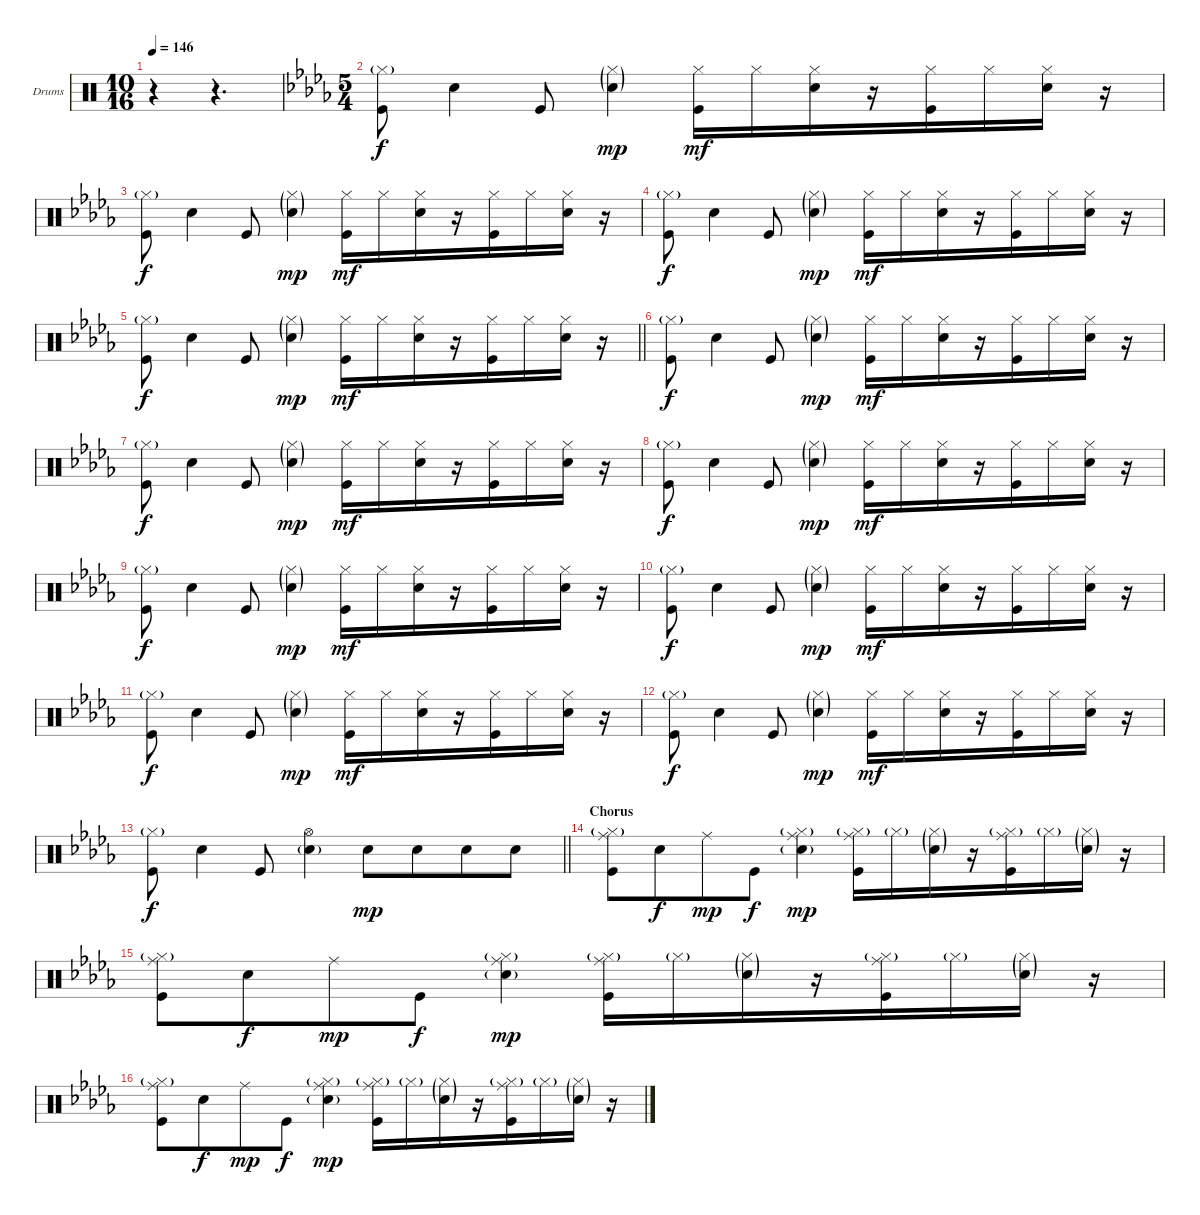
\bracketExtendMode groupsimilarinstruments
\firstSystemTrackNameOrientation horizontal
\otherSystemsTrackNameOrientation horizontal
\track ("Drumkit" "Drums") {instrument percussion}
\staff {score}
\articulation defaults
\ts (10 16)
\beaming (8 5)
\tempo 146
\clef neutral
\ks c
r.4{dy f} r.4{d} |
\ts (5 4)
\beaming (8 6 4)
\ks db
("Hi-Hat (closed)"{g} "Kick (hit)").8 "Snare (hit) 2".4 "Kick (hit)".8 ("Hi-Hat (closed)"{g} "Snare (hit) 2"{g}).4{dy mp} ("Hi-Hat (closed)" "Kick (hit)").16{dy mf} "Hi-Hat (closed)".16 ("Hi-Hat (closed)" "Snare (hit) 2").16 r.16 ("Hi-Hat (closed)" "Kick (hit)").16 "Hi-Hat (closed)".16 ("Hi-Hat (closed)" "Snare (hit) 2").16 r.16 |
("Hi-Hat (closed)"{g} "Kick (hit)").8{dy f} "Snare (hit) 2".4 "Kick (hit)".8 ("Hi-Hat (closed)"{g} "Snare (hit) 2"{g}).4{dy mp} ("Hi-Hat (closed)" "Kick (hit)").16{dy mf} "Hi-Hat (closed)".16 ("Hi-Hat (closed)" "Snare (hit) 2").16 r.16 ("Hi-Hat (closed)" "Kick (hit)").16 "Hi-Hat (closed)".16 ("Hi-Hat (closed)" "Snare (hit) 2").16 r.16 |
("Hi-Hat (closed)"{g} "Kick (hit)").8{dy f} "Snare (hit) 2".4 "Kick (hit)".8 ("Hi-Hat (closed)"{g} "Snare (hit) 2"{g}).4{dy mp} ("Hi-Hat (closed)" "Kick (hit)").16{dy mf} "Hi-Hat (closed)".16 ("Hi-Hat (closed)" "Snare (hit) 2").16 r.16 ("Hi-Hat (closed)" "Kick (hit)").16 "Hi-Hat (closed)".16 ("Hi-Hat (closed)" "Snare (hit) 2").16 r.16 |
\barLineRight lightlight
("Hi-Hat (closed)"{g} "Kick (hit)").8{dy f} "Snare (hit) 2".4 "Kick (hit)".8 ("Hi-Hat (closed)"{g} "Snare (hit) 2"{g}).4{dy mp} ("Hi-Hat (closed)" "Kick (hit)").16{dy mf} "Hi-Hat (closed)".16 ("Hi-Hat (closed)" "Snare (hit) 2").16 r.16 ("Hi-Hat (closed)" "Kick (hit)").16 "Hi-Hat (closed)".16 ("Hi-Hat (closed)" "Snare (hit) 2").16 r.16 |
("Hi-Hat (closed)"{g} "Kick (hit)").8{dy f} "Snare (hit) 2".4 "Kick (hit)".8 ("Hi-Hat (closed)"{g} "Snare (hit) 2"{g}).4{dy mp} ("Hi-Hat (closed)" "Kick (hit)").16{dy mf} "Hi-Hat (closed)".16 ("Hi-Hat (closed)" "Snare (hit) 2").16 r.16 ("Hi-Hat (closed)" "Kick (hit)").16 "Hi-Hat (closed)".16 ("Hi-Hat (closed)" "Snare (hit) 2").16 r.16 |
("Hi-Hat (closed)"{g} "Kick (hit)").8{dy f} "Snare (hit) 2".4 "Kick (hit)".8 ("Hi-Hat (closed)"{g} "Snare (hit) 2"{g}).4{dy mp} ("Hi-Hat (closed)" "Kick (hit)").16{dy mf} "Hi-Hat (closed)".16 ("Hi-Hat (closed)" "Snare (hit) 2").16 r.16 ("Hi-Hat (closed)" "Kick (hit)").16 "Hi-Hat (closed)".16 ("Hi-Hat (closed)" "Snare (hit) 2").16 r.16 |
("Hi-Hat (closed)"{g} "Kick (hit)").8{dy f} "Snare (hit) 2".4 "Kick (hit)".8 ("Hi-Hat (closed)"{g} "Snare (hit) 2"{g}).4{dy mp} ("Hi-Hat (closed)" "Kick (hit)").16{dy mf} "Hi-Hat (closed)".16 ("Hi-Hat (closed)" "Snare (hit) 2").16 r.16 ("Hi-Hat (closed)" "Kick (hit)").16 "Hi-Hat (closed)".16 ("Hi-Hat (closed)" "Snare (hit) 2").16 r.16 |
("Hi-Hat (closed)"{g} "Kick (hit)").8{dy f} "Snare (hit) 2".4 "Kick (hit)".8 ("Hi-Hat (closed)"{g} "Snare (hit) 2"{g}).4{dy mp} ("Hi-Hat (closed)" "Kick (hit)").16{dy mf} "Hi-Hat (closed)".16 ("Hi-Hat (closed)" "Snare (hit) 2").16 r.16 ("Hi-Hat (closed)" "Kick (hit)").16 "Hi-Hat (closed)".16 ("Hi-Hat (closed)" "Snare (hit) 2").16 r.16 |
("Hi-Hat (closed)"{g} "Kick (hit)").8{dy f} "Snare (hit) 2".4 "Kick (hit)".8 ("Hi-Hat (closed)"{g} "Snare (hit) 2"{g}).4{dy mp} ("Hi-Hat (closed)" "Kick (hit)").16{dy mf} "Hi-Hat (closed)".16 ("Hi-Hat (closed)" "Snare (hit) 2").16 r.16 ("Hi-Hat (closed)" "Kick (hit)").16 "Hi-Hat (closed)".16 ("Hi-Hat (closed)" "Snare (hit) 2").16 r.16 |
("Hi-Hat (closed)"{g} "Kick (hit)").8{dy f} "Snare (hit) 2".4 "Kick (hit)".8 ("Hi-Hat (closed)"{g} "Snare (hit) 2"{g}).4{dy mp} ("Hi-Hat (closed)" "Kick (hit)").16{dy mf} "Hi-Hat (closed)".16 ("Hi-Hat (closed)" "Snare (hit) 2").16 r.16 ("Hi-Hat (closed)" "Kick (hit)").16 "Hi-Hat (closed)".16 ("Hi-Hat (closed)" "Snare (hit) 2").16 r.16 |
("Hi-Hat (closed)"{g} "Kick (hit)").8{dy f} "Snare (hit) 2".4 "Kick (hit)".8 ("Hi-Hat (closed)"{g} "Snare (hit) 2"{g}).4{dy mp} ("Hi-Hat (closed)" "Kick (hit)").16{dy mf} "Hi-Hat (closed)".16 ("Hi-Hat (closed)" "Snare (hit) 2").16 r.16 ("Hi-Hat (closed)" "Kick (hit)").16 "Hi-Hat (closed)".16 ("Hi-Hat (closed)" "Snare (hit) 2").16 r.16 |
\barLineRight lightlight
("Hi-Hat (closed)"{g} "Kick (hit)").8{dy f} "Snare (hit) 2".4 "Kick (hit)".8 ("Hi-Hat (open)" "Snare (hit) 2"{g}).4 "Snare (hit) 2".8{dy mp} "Snare (hit) 2".8 "Snare (hit) 2".8 "Snare (hit) 2".8 |
\section ("" "Chorus")
("Hi-Hat (closed)"{g} "Ride (middle)" "Kick (hit)").8 "Snare (hit) 2".8{dy f} "Ride (middle)".8{dy mp} "Kick (hit)".8{dy f} ("Hi-Hat (closed)"{g} "Ride (middle)" "Snare (hit) 2"{g}).4{dy mp} ("Hi-Hat (closed)"{g} "Ride (middle)" "Kick (hit)").16 "Hi-Hat (closed)"{g}.16 ("Hi-Hat (closed)"{g} "Snare (hit) 2"{g}).16 r.16 ("Hi-Hat (closed)"{g} "Ride (middle)" "Kick (hit)").16 "Hi-Hat (closed)"{g}.16 ("Hi-Hat (closed)"{g} "Snare (hit) 2"{g}).16 r.16 |
("Hi-Hat (closed)"{g} "Ride (middle)" "Kick (hit)").8 "Snare (hit) 2".8{dy f} "Ride (middle)".8{dy mp} "Kick (hit)".8{dy f} ("Hi-Hat (closed)"{g} "Ride (middle)" "Snare (hit) 2"{g}).4{dy mp} ("Hi-Hat (closed)"{g} "Ride (middle)" "Kick (hit)").16 "Hi-Hat (closed)"{g}.16 ("Hi-Hat (closed)"{g} "Snare (hit) 2"{g}).16 r.16 ("Hi-Hat (closed)"{g} "Ride (middle)" "Kick (hit)").16 "Hi-Hat (closed)"{g}.16 ("Hi-Hat (closed)"{g} "Snare (hit) 2"{g}).16 r.16 |
("Hi-Hat (closed)"{g} "Ride (middle)" "Kick (hit)").8 "Snare (hit) 2".8{dy f} "Ride (middle)".8{dy mp} "Kick (hit)".8{dy f} ("Hi-Hat (closed)"{g} "Ride (middle)" "Snare (hit) 2"{g}).4{dy mp} ("Hi-Hat (closed)"{g} "Ride (middle)" "Kick (hit)").16 "Hi-Hat (closed)"{g}.16 ("Hi-Hat (closed)"{g} "Snare (hit) 2"{g}).16 r.16 ("Hi-Hat (closed)"{g} "Ride (middle)" "Kick (hit)").16 "Hi-Hat (closed)"{g}.16 ("Hi-Hat (closed)"{g} "Snare (hit) 2"{g}).16 r.16
